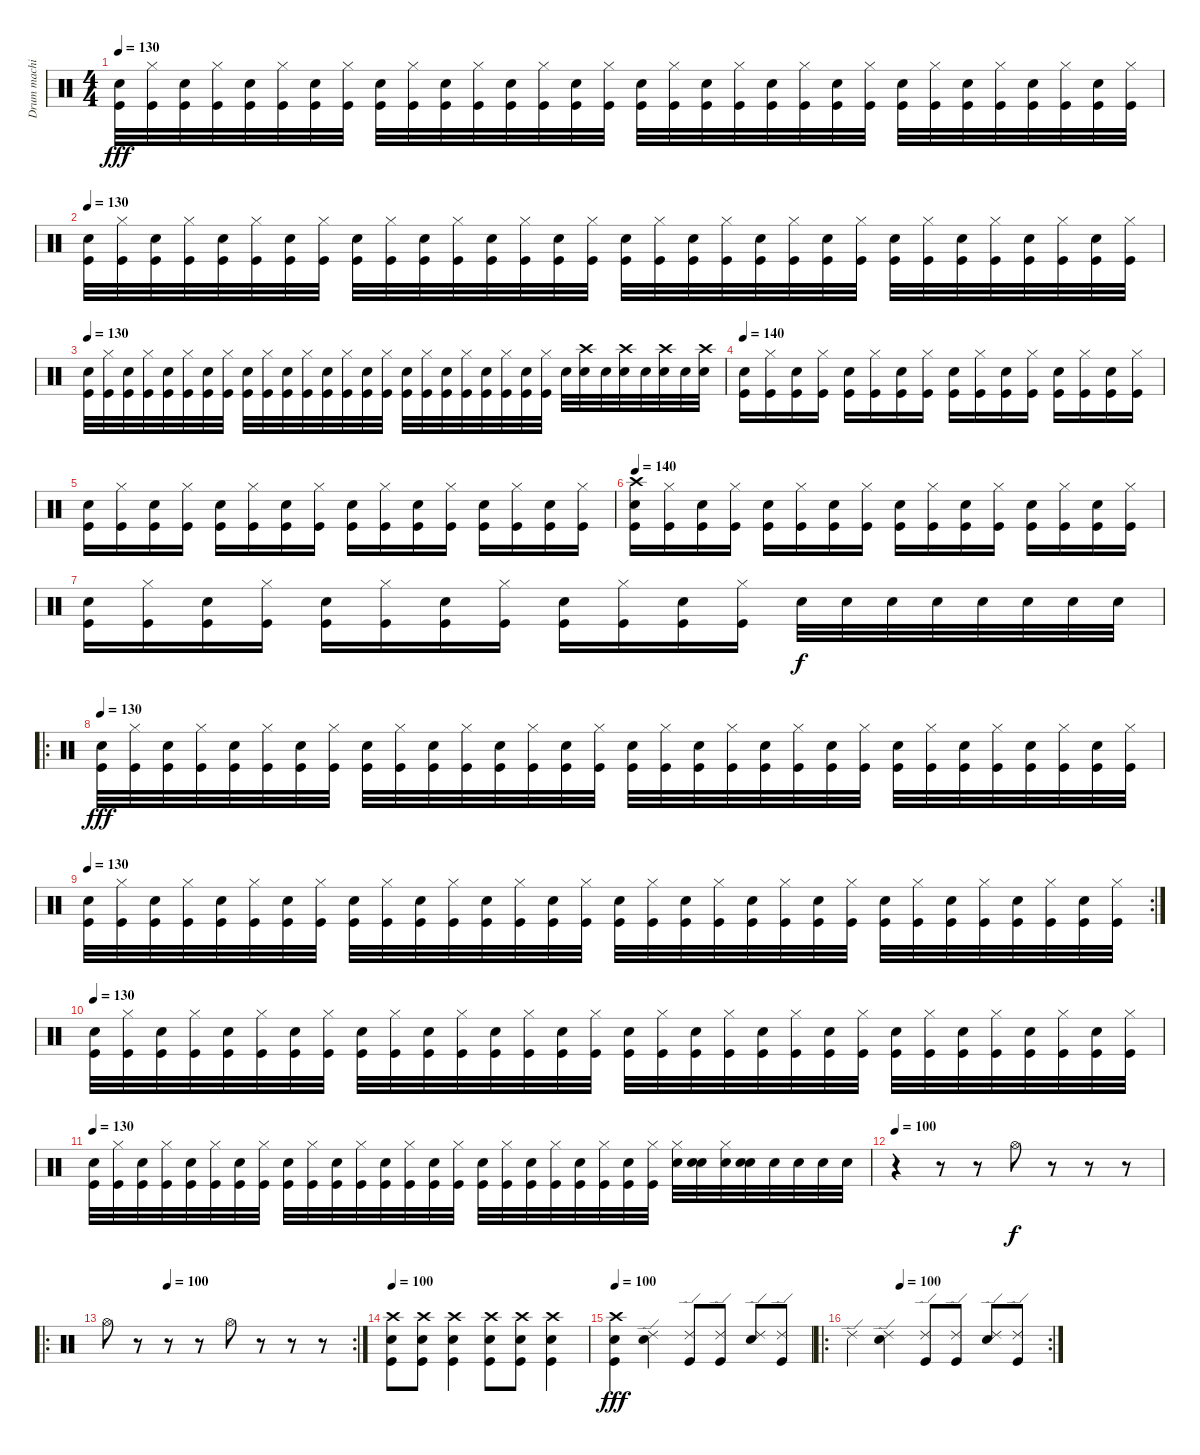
\track ("Drum machine" "Drum machi") {instrument percussion}
\staff {score}
\articulation defaults
\ts (4 4)
\tempo 130
\clef neutral
\ks c
("Snare (hit) 2" "Kick (hit)").32{dy fff} ("Hi-Hat (closed)" "Kick (hit)").32 ("Snare (hit) 2" "Kick (hit)").32 ("Hi-Hat (closed)" "Kick (hit)").32 ("Snare (hit) 2" "Kick (hit)").32 ("Hi-Hat (closed)" "Kick (hit)").32 ("Snare (hit) 2" "Kick (hit)").32 ("Hi-Hat (closed)" "Kick (hit)").32 ("Snare (hit) 2" "Kick (hit)").32 ("Hi-Hat (closed)" "Kick (hit)").32 ("Snare (hit) 2" "Kick (hit)").32 ("Hi-Hat (closed)" "Kick (hit)").32 ("Snare (hit) 2" "Kick (hit)").32 ("Hi-Hat (closed)" "Kick (hit)").32 ("Snare (hit) 2" "Kick (hit)").32 ("Hi-Hat (closed)" "Kick (hit)").32 ("Snare (hit) 2" "Kick (hit)").32 ("Hi-Hat (closed)" "Kick (hit)").32 ("Snare (hit) 2" "Kick (hit)").32 ("Hi-Hat (closed)" "Kick (hit)").32 ("Snare (hit) 2" "Kick (hit)").32 ("Hi-Hat (closed)" "Kick (hit)").32 ("Snare (hit) 2" "Kick (hit)").32 ("Hi-Hat (closed)" "Kick (hit)").32 ("Snare (hit) 2" "Kick (hit)").32 ("Hi-Hat (closed)" "Kick (hit)").32 ("Snare (hit) 2" "Kick (hit)").32 ("Hi-Hat (closed)" "Kick (hit)").32 ("Snare (hit) 2" "Kick (hit)").32 ("Hi-Hat (closed)" "Kick (hit)").32 ("Snare (hit) 2" "Kick (hit)").32 ("Hi-Hat (closed)" "Kick (hit)").32 |
\tempo 130
("Snare (hit) 2" "Kick (hit)").32 ("Hi-Hat (closed)" "Kick (hit)").32 ("Snare (hit) 2" "Kick (hit)").32 ("Hi-Hat (closed)" "Kick (hit)").32 ("Snare (hit) 2" "Kick (hit)").32 ("Hi-Hat (closed)" "Kick (hit)").32 ("Snare (hit) 2" "Kick (hit)").32 ("Hi-Hat (closed)" "Kick (hit)").32 ("Snare (hit) 2" "Kick (hit)").32 ("Hi-Hat (closed)" "Kick (hit)").32 ("Snare (hit) 2" "Kick (hit)").32 ("Hi-Hat (closed)" "Kick (hit)").32 ("Snare (hit) 2" "Kick (hit)").32 ("Hi-Hat (closed)" "Kick (hit)").32 ("Snare (hit) 2" "Kick (hit)").32 ("Hi-Hat (closed)" "Kick (hit)").32 ("Snare (hit) 2" "Kick (hit)").32 ("Hi-Hat (closed)" "Kick (hit)").32 ("Snare (hit) 2" "Kick (hit)").32 ("Hi-Hat (closed)" "Kick (hit)").32 ("Snare (hit) 2" "Kick (hit)").32 ("Hi-Hat (closed)" "Kick (hit)").32 ("Snare (hit) 2" "Kick (hit)").32 ("Hi-Hat (closed)" "Kick (hit)").32 ("Snare (hit) 2" "Kick (hit)").32 ("Hi-Hat (closed)" "Kick (hit)").32 ("Snare (hit) 2" "Kick (hit)").32 ("Hi-Hat (closed)" "Kick (hit)").32 ("Snare (hit) 2" "Kick (hit)").32 ("Hi-Hat (closed)" "Kick (hit)").32 ("Snare (hit) 2" "Kick (hit)").32 ("Hi-Hat (closed)" "Kick (hit)").32 |
\tempo 130
("Snare (hit) 2" "Kick (hit)").32 ("Hi-Hat (closed)" "Kick (hit)").32 ("Snare (hit) 2" "Kick (hit)").32 ("Hi-Hat (closed)" "Kick (hit)").32 ("Snare (hit) 2" "Kick (hit)").32 ("Hi-Hat (closed)" "Kick (hit)").32 ("Snare (hit) 2" "Kick (hit)").32 ("Hi-Hat (closed)" "Kick (hit)").32 ("Snare (hit) 2" "Kick (hit)").32 ("Hi-Hat (closed)" "Kick (hit)").32 ("Snare (hit) 2" "Kick (hit)").32 ("Hi-Hat (closed)" "Kick (hit)").32 ("Snare (hit) 2" "Kick (hit)").32 ("Hi-Hat (closed)" "Kick (hit)").32 ("Snare (hit) 2" "Kick (hit)").32 ("Hi-Hat (closed)" "Kick (hit)").32 ("Snare (hit) 2" "Kick (hit)").32 ("Hi-Hat (closed)" "Kick (hit)").32 ("Snare (hit) 2" "Kick (hit)").32 ("Hi-Hat (closed)" "Kick (hit)").32 ("Snare (hit) 2" "Kick (hit)").32 ("Hi-Hat (closed)" "Kick (hit)").32 ("Snare (hit) 2" "Kick (hit)").32 ("Hi-Hat (closed)" "Kick (hit)").32 "Snare (hit) 2".32 ("Crash high (hit)" "Snare (hit) 2").32 "Snare (hit) 2".32 ("Crash high (hit)" "Snare (hit) 2").32 "Snare (hit) 2".32 ("Crash high (hit)" "Snare (hit) 2").32 "Snare (hit) 2".32 ("Crash high (hit)" "Snare (hit) 2").32 |
\tempo 140
("Snare (hit) 2" "Kick (hit)").16 ("Hi-Hat (closed)" "Kick (hit)").16 ("Snare (hit) 2" "Kick (hit)").16 ("Hi-Hat (closed)" "Kick (hit)").16 ("Snare (hit) 2" "Kick (hit)").16 ("Hi-Hat (closed)" "Kick (hit)").16 ("Snare (hit) 2" "Kick (hit)").16 ("Hi-Hat (closed)" "Kick (hit)").16 ("Snare (hit) 2" "Kick (hit)").16 ("Hi-Hat (closed)" "Kick (hit)").16 ("Snare (hit) 2" "Kick (hit)").16 ("Hi-Hat (closed)" "Kick (hit)").16 ("Snare (hit) 2" "Kick (hit)").16 ("Hi-Hat (closed)" "Kick (hit)").16 ("Snare (hit) 2" "Kick (hit)").16 ("Hi-Hat (closed)" "Kick (hit)").16 |
("Snare (hit) 2" "Kick (hit)").16 ("Hi-Hat (closed)" "Kick (hit)").16 ("Snare (hit) 2" "Kick (hit)").16 ("Hi-Hat (closed)" "Kick (hit)").16 ("Snare (hit) 2" "Kick (hit)").16 ("Hi-Hat (closed)" "Kick (hit)").16 ("Snare (hit) 2" "Kick (hit)").16 ("Hi-Hat (closed)" "Kick (hit)").16 ("Snare (hit) 2" "Kick (hit)").16 ("Hi-Hat (closed)" "Kick (hit)").16 ("Snare (hit) 2" "Kick (hit)").16 ("Hi-Hat (closed)" "Kick (hit)").16 ("Snare (hit) 2" "Kick (hit)").16 ("Hi-Hat (closed)" "Kick (hit)").16 ("Snare (hit) 2" "Kick (hit)").16 ("Hi-Hat (closed)" "Kick (hit)").16 |
\tempo 140
("Crash high (hit)" "Snare (hit) 2" "Kick (hit)").16 ("Hi-Hat (closed)" "Kick (hit)").16 ("Snare (hit) 2" "Kick (hit)").16 ("Hi-Hat (closed)" "Kick (hit)").16 ("Snare (hit) 2" "Kick (hit)").16 ("Hi-Hat (closed)" "Kick (hit)").16 ("Snare (hit) 2" "Kick (hit)").16 ("Hi-Hat (closed)" "Kick (hit)").16 ("Snare (hit) 2" "Kick (hit)").16 ("Hi-Hat (closed)" "Kick (hit)").16 ("Snare (hit) 2" "Kick (hit)").16 ("Hi-Hat (closed)" "Kick (hit)").16 ("Snare (hit) 2" "Kick (hit)").16 ("Hi-Hat (closed)" "Kick (hit)").16 ("Snare (hit) 2" "Kick (hit)").16 ("Hi-Hat (closed)" "Kick (hit)").16 |
("Snare (hit) 2" "Kick (hit)").16 ("Hi-Hat (closed)" "Kick (hit)").16 ("Snare (hit) 2" "Kick (hit)").16 ("Hi-Hat (closed)" "Kick (hit)").16 ("Snare (hit) 2" "Kick (hit)").16 ("Hi-Hat (closed)" "Kick (hit)").16 ("Snare (hit) 2" "Kick (hit)").16 ("Hi-Hat (closed)" "Kick (hit)").16 ("Snare (hit) 2" "Kick (hit)").16 ("Hi-Hat (closed)" "Kick (hit)").16 ("Snare (hit) 2" "Kick (hit)").16 ("Hi-Hat (closed)" "Kick (hit)").16 "Snare (hit) 2".32{dy f} "Snare (hit) 2".32 "Snare (hit) 2".32 "Snare (hit) 2".32 "Snare (hit) 2".32 "Snare (hit) 2".32 "Snare (hit) 2".32 "Snare (hit) 2".32 |
\ro
\tempo 130
("Snare (hit) 2" "Kick (hit)").32{dy fff} ("Hi-Hat (closed)" "Kick (hit)").32 ("Snare (hit) 2" "Kick (hit)").32 ("Hi-Hat (closed)" "Kick (hit)").32 ("Snare (hit) 2" "Kick (hit)").32 ("Hi-Hat (closed)" "Kick (hit)").32 ("Snare (hit) 2" "Kick (hit)").32 ("Hi-Hat (closed)" "Kick (hit)").32 ("Snare (hit) 2" "Kick (hit)").32 ("Hi-Hat (closed)" "Kick (hit)").32 ("Snare (hit) 2" "Kick (hit)").32 ("Hi-Hat (closed)" "Kick (hit)").32 ("Snare (hit) 2" "Kick (hit)").32 ("Hi-Hat (closed)" "Kick (hit)").32 ("Snare (hit) 2" "Kick (hit)").32 ("Hi-Hat (closed)" "Kick (hit)").32 ("Snare (hit) 2" "Kick (hit)").32 ("Hi-Hat (closed)" "Kick (hit)").32 ("Snare (hit) 2" "Kick (hit)").32 ("Hi-Hat (closed)" "Kick (hit)").32 ("Snare (hit) 2" "Kick (hit)").32 ("Hi-Hat (closed)" "Kick (hit)").32 ("Snare (hit) 2" "Kick (hit)").32 ("Hi-Hat (closed)" "Kick (hit)").32 ("Snare (hit) 2" "Kick (hit)").32 ("Hi-Hat (closed)" "Kick (hit)").32 ("Snare (hit) 2" "Kick (hit)").32 ("Hi-Hat (closed)" "Kick (hit)").32 ("Snare (hit) 2" "Kick (hit)").32 ("Hi-Hat (closed)" "Kick (hit)").32 ("Snare (hit) 2" "Kick (hit)").32 ("Hi-Hat (closed)" "Kick (hit)").32 |
\rc 2
\tempo 130
("Snare (hit) 2" "Kick (hit)").32 ("Hi-Hat (closed)" "Kick (hit)").32 ("Snare (hit) 2" "Kick (hit)").32 ("Hi-Hat (closed)" "Kick (hit)").32 ("Snare (hit) 2" "Kick (hit)").32 ("Hi-Hat (closed)" "Kick (hit)").32 ("Snare (hit) 2" "Kick (hit)").32 ("Hi-Hat (closed)" "Kick (hit)").32 ("Snare (hit) 2" "Kick (hit)").32 ("Hi-Hat (closed)" "Kick (hit)").32 ("Snare (hit) 2" "Kick (hit)").32 ("Hi-Hat (closed)" "Kick (hit)").32 ("Snare (hit) 2" "Kick (hit)").32 ("Hi-Hat (closed)" "Kick (hit)").32 ("Snare (hit) 2" "Kick (hit)").32 ("Hi-Hat (closed)" "Kick (hit)").32 ("Snare (hit) 2" "Kick (hit)").32 ("Hi-Hat (closed)" "Kick (hit)").32 ("Snare (hit) 2" "Kick (hit)").32 ("Hi-Hat (closed)" "Kick (hit)").32 ("Snare (hit) 2" "Kick (hit)").32 ("Hi-Hat (closed)" "Kick (hit)").32 ("Snare (hit) 2" "Kick (hit)").32 ("Hi-Hat (closed)" "Kick (hit)").32 ("Snare (hit) 2" "Kick (hit)").32 ("Hi-Hat (closed)" "Kick (hit)").32 ("Snare (hit) 2" "Kick (hit)").32 ("Hi-Hat (closed)" "Kick (hit)").32 ("Snare (hit) 2" "Kick (hit)").32 ("Hi-Hat (closed)" "Kick (hit)").32 ("Snare (hit) 2" "Kick (hit)").32 ("Hi-Hat (closed)" "Kick (hit)").32 |
\tempo 130
("Snare (hit) 2" "Kick (hit)").32 ("Hi-Hat (closed)" "Kick (hit)").32 ("Snare (hit) 2" "Kick (hit)").32 ("Hi-Hat (closed)" "Kick (hit)").32 ("Snare (hit) 2" "Kick (hit)").32 ("Hi-Hat (closed)" "Kick (hit)").32 ("Snare (hit) 2" "Kick (hit)").32 ("Hi-Hat (closed)" "Kick (hit)").32 ("Snare (hit) 2" "Kick (hit)").32 ("Hi-Hat (closed)" "Kick (hit)").32 ("Snare (hit) 2" "Kick (hit)").32 ("Hi-Hat (closed)" "Kick (hit)").32 ("Snare (hit) 2" "Kick (hit)").32 ("Hi-Hat (closed)" "Kick (hit)").32 ("Snare (hit) 2" "Kick (hit)").32 ("Hi-Hat (closed)" "Kick (hit)").32 ("Snare (hit) 2" "Kick (hit)").32 ("Hi-Hat (closed)" "Kick (hit)").32 ("Snare (hit) 2" "Kick (hit)").32 ("Hi-Hat (closed)" "Kick (hit)").32 ("Snare (hit) 2" "Kick (hit)").32 ("Hi-Hat (closed)" "Kick (hit)").32 ("Snare (hit) 2" "Kick (hit)").32 ("Hi-Hat (closed)" "Kick (hit)").32 ("Snare (hit) 2" "Kick (hit)").32 ("Hi-Hat (closed)" "Kick (hit)").32 ("Snare (hit) 2" "Kick (hit)").32 ("Hi-Hat (closed)" "Kick (hit)").32 ("Snare (hit) 2" "Kick (hit)").32 ("Hi-Hat (closed)" "Kick (hit)").32 ("Snare (hit) 2" "Kick (hit)").32 ("Hi-Hat (closed)" "Kick (hit)").32 |
\tempo 130
("Snare (hit) 2" "Kick (hit)").32 ("Hi-Hat (closed)" "Kick (hit)").32 ("Snare (hit) 2" "Kick (hit)").32 ("Hi-Hat (closed)" "Kick (hit)").32 ("Snare (hit) 2" "Kick (hit)").32 ("Hi-Hat (closed)" "Kick (hit)").32 ("Snare (hit) 2" "Kick (hit)").32 ("Hi-Hat (closed)" "Kick (hit)").32 ("Snare (hit) 2" "Kick (hit)").32 ("Hi-Hat (closed)" "Kick (hit)").32 ("Snare (hit) 2" "Kick (hit)").32 ("Hi-Hat (closed)" "Kick (hit)").32 ("Snare (hit) 2" "Kick (hit)").32 ("Hi-Hat (closed)" "Kick (hit)").32 ("Snare (hit) 2" "Kick (hit)").32 ("Hi-Hat (closed)" "Kick (hit)").32 ("Snare (hit) 2" "Kick (hit)").32 ("Hi-Hat (closed)" "Kick (hit)").32 ("Snare (hit) 2" "Kick (hit)").32 ("Hi-Hat (closed)" "Kick (hit)").32 ("Snare (hit) 2" "Kick (hit)").32 ("Hi-Hat (closed)" "Kick (hit)").32 ("Snare (hit) 2" "Kick (hit)").32 ("Hi-Hat (closed)" "Kick (hit)").32 ("Hi-Hat (closed)" "Snare (hit) 2").32 ("Snare (hit) 2" "Snare (hit) 2").32 ("Hi-Hat (closed)" "Snare (hit) 2").32 ("Snare (hit) 2" "Snare (hit) 2").32 "Snare (hit) 2".32 "Snare (hit) 2".32 "Snare (hit) 2".32 "Snare (hit) 2".32 |
\tempo 100
r.4 r.8 r.8 "Hi-Hat (open)".8{dy f} r.8 r.8 r.8 |
\ro
\rc 2
\tempo (100 0.25)
"Hi-Hat (open)".8 r.8 r.8 r.8 "Hi-Hat (open)".8 r.8 r.8 r.8 |
\tempo 100
("Crash high (hit)" "Snare (hit) 2" "Kick (hit)").8 ("Crash high (hit)" "Snare (hit) 2" "Kick (hit)").8 ("Crash high (hit)" "Snare (hit) 2" "Kick (hit)").4 ("Crash high (hit)" "Snare (hit) 2" "Kick (hit)").8 ("Crash high (hit)" "Snare (hit) 2" "Kick (hit)").8 ("Crash high (hit)" "Snare (hit) 2" "Kick (hit)").4 |
\tempo 100
("Crash high (hit)" "Kick (hit)" "Snare (hit) 2").4{dy fff} ("Snare (hit) 2" "Ride (edge) 2").4 ("Ride (edge) 2" "Kick (hit)").8 ("Ride (edge) 2" "Kick (hit)").8 ("Ride (edge) 2" "Snare (hit) 2").8 ("Ride (edge) 2" "Kick (hit)").8 |
\ro
\rc 2
\tempo (100 0.25)
"Ride (edge) 2".4 ("Snare (hit) 2" "Ride (edge) 2").4 ("Ride (edge) 2" "Kick (hit)").8 ("Ride (edge) 2" "Kick (hit)").8 ("Ride (edge) 2" "Snare (hit) 2").8 ("Ride (edge) 2" "Kick (hit)").8
